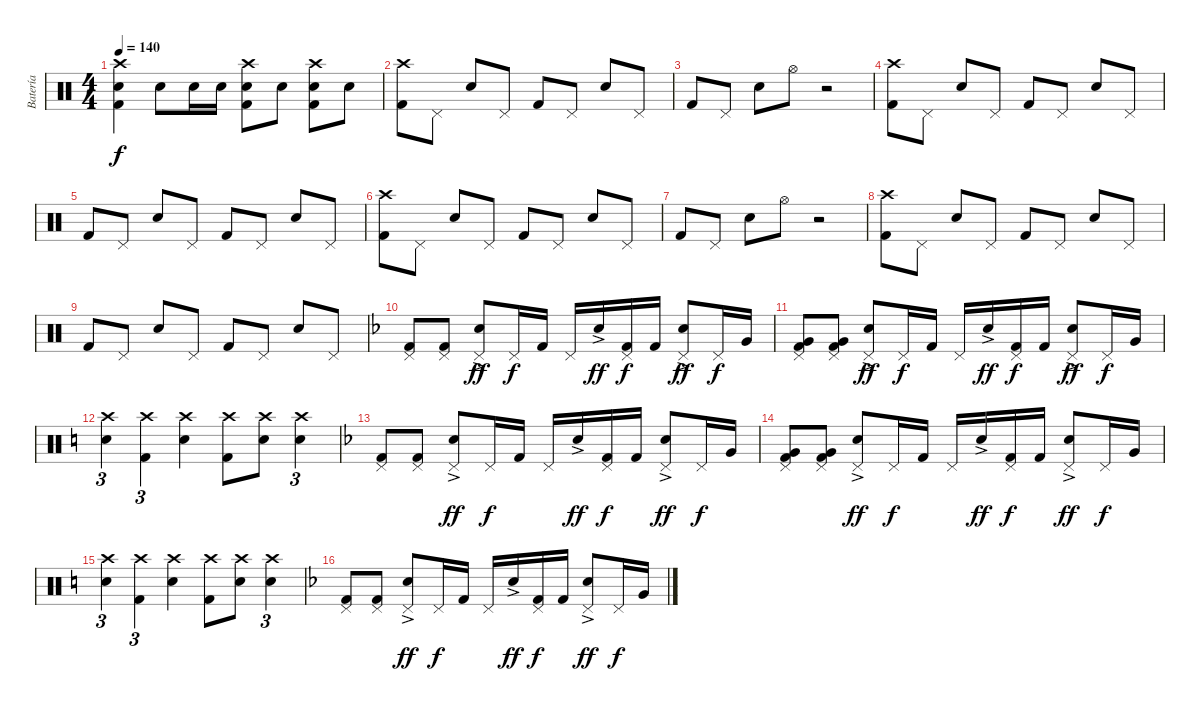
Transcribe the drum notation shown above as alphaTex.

\track ("Batería" "Batería") {instrument percussion}
\staff {score}
\articulation defaults
\ts (4 4)
\tempo 140
\clef neutral
\ks c
("Crash high (hit)" "Snare (hit) 2" "Kick (hit) 2").4{dy f} "Snare (hit) 2".8 "Snare (hit) 2".16 "Snare (hit) 2".16 ("Crash high (hit)" "Snare (hit) 2" "Kick (hit) 2").8 "Snare (hit) 2".8 ("Crash high (hit)" "Snare (hit) 2" "Kick (hit) 2").8 "Snare (hit) 2".8 |
("Crash high (hit)" "Kick (hit) 2").8 "Pedal Hi-Hat (hit)".8 "Snare (hit) 2".8 "Pedal Hi-Hat (hit)".8 "Kick (hit) 2".8 "Pedal Hi-Hat (hit)".8 "Snare (hit) 2".8 "Pedal Hi-Hat (hit)".8 |
"Kick (hit) 2".8 "Pedal Hi-Hat (hit)".8 "Snare (hit) 2".8 "Hi-Hat (open)".8 r.2 |
("Crash high (hit)" "Kick (hit) 2").8 "Pedal Hi-Hat (hit)".8 "Snare (hit) 2".8 "Pedal Hi-Hat (hit)".8 "Kick (hit) 2".8 "Pedal Hi-Hat (hit)".8 "Snare (hit) 2".8 "Pedal Hi-Hat (hit)".8 |
"Kick (hit) 2".8 "Pedal Hi-Hat (hit)".8 "Snare (hit) 2".8 "Pedal Hi-Hat (hit)".8 "Kick (hit) 2".8 "Pedal Hi-Hat (hit)".8 "Snare (hit) 2".8 "Pedal Hi-Hat (hit)".8 |
("Crash high (hit)" "Kick (hit) 2").8 "Pedal Hi-Hat (hit)".8 "Snare (hit) 2".8 "Pedal Hi-Hat (hit)".8 "Kick (hit) 2".8 "Pedal Hi-Hat (hit)".8 "Snare (hit) 2".8 "Pedal Hi-Hat (hit)".8 |
"Kick (hit) 2".8 "Pedal Hi-Hat (hit)".8 "Snare (hit) 2".8 "Hi-Hat (open)".8 r.2 |
("Crash high (hit)" "Kick (hit) 2").8 "Pedal Hi-Hat (hit)".8 "Snare (hit) 2".8 "Pedal Hi-Hat (hit)".8 "Kick (hit) 2".8 "Pedal Hi-Hat (hit)".8 "Snare (hit) 2".8 "Pedal Hi-Hat (hit)".8 |
"Kick (hit) 2".8 "Pedal Hi-Hat (hit)".8 "Snare (hit) 2".8 "Pedal Hi-Hat (hit)".8 "Kick (hit) 2".8 "Pedal Hi-Hat (hit)".8 "Snare (hit) 2".8 "Pedal Hi-Hat (hit)".8 |
\ks f
("Pedal Hi-Hat (hit)" "Kick (hit) 2").8 ("Pedal Hi-Hat (hit)" "Kick (hit) 2").8 ("Pedal Hi-Hat (hit)" "Electric Snare (hit)"{ac}).8{dy ff} "Pedal Hi-Hat (hit)".16{dy f} "Kick (hit) 2".16 "Pedal Hi-Hat (hit)".16 "Electric Snare (hit)"{ac}.16{dy ff} ("Pedal Hi-Hat (hit)" "Kick (hit) 2").16{dy f} "Kick (hit) 2".16 ("Pedal Hi-Hat (hit)" "Electric Snare (hit)"{ac}).8{dy ff} "Pedal Hi-Hat (hit)".16{dy f} "Very Low Tom (hit)".16 |
("Pedal Hi-Hat (hit)" "Very Low Tom (hit)" "Kick (hit) 2").8 ("Pedal Hi-Hat (hit)" "Very Low Tom (hit)" "Kick (hit) 2").8 ("Pedal Hi-Hat (hit)" "Electric Snare (hit)"{ac}).8{dy ff} "Pedal Hi-Hat (hit)".16{dy f} "Kick (hit) 2".16 "Pedal Hi-Hat (hit)".16 "Electric Snare (hit)"{ac}.16{dy ff} ("Pedal Hi-Hat (hit)" "Kick (hit) 2").16{dy f} "Kick (hit) 2".16 ("Pedal Hi-Hat (hit)" "Electric Snare (hit)"{ac}).8{dy ff} "Pedal Hi-Hat (hit)".16{dy f} "Very Low Tom (hit)".16 |
\ks c
("Crash high (hit)" "Snare (hit) 2").4{tu (3 2)} ("Crash high (hit)" "Kick (hit) 2").4{tu (3 2)} ("Crash high (hit)" "Snare (hit) 2").4 ("Crash high (hit)" "Kick (hit) 2").8 ("Crash high (hit)" "Snare (hit) 2").8 ("Crash high (hit)" "Snare (hit) 2").4{tu (3 2)} |
\ks f
("Pedal Hi-Hat (hit)" "Kick (hit) 2").8 ("Pedal Hi-Hat (hit)" "Kick (hit) 2").8 ("Pedal Hi-Hat (hit)" "Electric Snare (hit)"{ac}).8{dy ff} "Pedal Hi-Hat (hit)".16{dy f} "Kick (hit) 2".16 "Pedal Hi-Hat (hit)".16 "Electric Snare (hit)"{ac}.16{dy ff} ("Pedal Hi-Hat (hit)" "Kick (hit) 2").16{dy f} "Kick (hit) 2".16 ("Pedal Hi-Hat (hit)" "Electric Snare (hit)"{ac}).8{dy ff} "Pedal Hi-Hat (hit)".16{dy f} "Very Low Tom (hit)".16 |
("Pedal Hi-Hat (hit)" "Very Low Tom (hit)" "Kick (hit) 2").8 ("Pedal Hi-Hat (hit)" "Very Low Tom (hit)" "Kick (hit) 2").8 ("Pedal Hi-Hat (hit)" "Electric Snare (hit)"{ac}).8{dy ff} "Pedal Hi-Hat (hit)".16{dy f} "Kick (hit) 2".16 "Pedal Hi-Hat (hit)".16 "Electric Snare (hit)"{ac}.16{dy ff} ("Pedal Hi-Hat (hit)" "Kick (hit) 2").16{dy f} "Kick (hit) 2".16 ("Pedal Hi-Hat (hit)" "Electric Snare (hit)"{ac}).8{dy ff} "Pedal Hi-Hat (hit)".16{dy f} "Very Low Tom (hit)".16 |
\ks c
("Crash high (hit)" "Snare (hit) 2").4{tu (3 2)} ("Crash high (hit)" "Kick (hit) 2").4{tu (3 2)} ("Crash high (hit)" "Snare (hit) 2").4 ("Crash high (hit)" "Kick (hit) 2").8 ("Crash high (hit)" "Snare (hit) 2").8 ("Crash high (hit)" "Snare (hit) 2").4{tu (3 2)} |
\ks f
("Pedal Hi-Hat (hit)" "Kick (hit) 2").8 ("Pedal Hi-Hat (hit)" "Kick (hit) 2").8 ("Pedal Hi-Hat (hit)" "Electric Snare (hit)"{ac}).8{dy ff} "Pedal Hi-Hat (hit)".16{dy f} "Kick (hit) 2".16 "Pedal Hi-Hat (hit)".16 "Electric Snare (hit)"{ac}.16{dy ff} ("Pedal Hi-Hat (hit)" "Kick (hit) 2").16{dy f} "Kick (hit) 2".16 ("Pedal Hi-Hat (hit)" "Electric Snare (hit)"{ac}).8{dy ff} "Pedal Hi-Hat (hit)".16{dy f} "Very Low Tom (hit)".16
